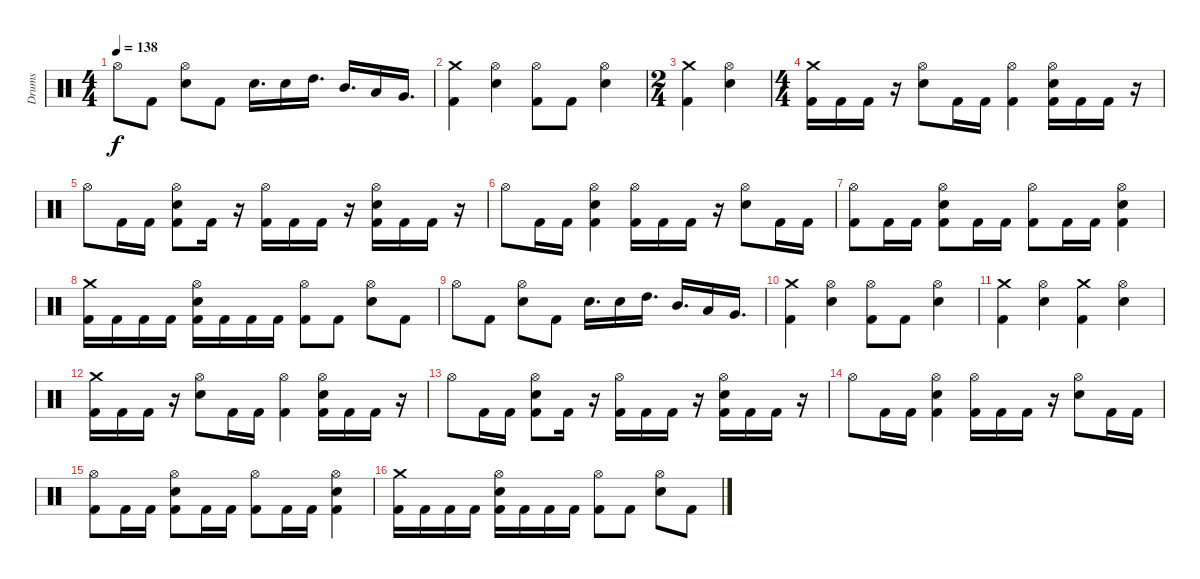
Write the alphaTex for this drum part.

\track ("Drums" "Drums") {instrument percussion}
\staff {score}
\articulation defaults
\ts (4 4)
\tempo 138
\clef neutral
\ks c "Hi-Hat (open)".8{dy f} "Kick (hit) 2".8
("Hi-Hat (open)" "Electric Snare (hit)").8 "Kick (hit) 2".8 "Electric Snare (hit)".16{d} "Electric Snare (hit)".16 "High Tom (hit)".16{d} "Mid Tom (hit)".16{d} "Low Tom (hit)".16 "Very Low Tom (hit)".16{d} |
("Crash medium (hit)" "Kick (hit) 2").4 ("Hi-Hat (open)" "Electric Snare (hit)").4 ("Hi-Hat (open)" "Kick (hit) 2").8 "Kick (hit) 2".8 ("Hi-Hat (open)" "Electric Snare (hit)").4 |
\ts (2 4)
("Crash medium (hit)" "Kick (hit) 2").4 ("Hi-Hat (open)" "Electric Snare (hit)").4 |
\ts (4 4)
("Crash medium (hit)" "Kick (hit) 2").16 "Kick (hit) 2".16 "Kick (hit) 2".16 r.16 ("Electric Snare (hit)" "Hi-Hat (open)").8 "Kick (hit) 2".16 "Kick (hit) 2".16 ("Hi-Hat (open)" "Kick (hit) 2").4 ("Electric Snare (hit)" "Hi-Hat (open)" "Kick (hit) 2").16 "Kick (hit) 2".16 "Kick (hit) 2".16 r.16 |
"Hi-Hat (open)".8 "Kick (hit) 2".16 "Kick (hit) 2".16 ("Electric Snare (hit)" "Hi-Hat (open)" "Kick (hit) 2").8 "Kick (hit) 2".16 r.16 ("Hi-Hat (open)" "Kick (hit) 2").16 "Kick (hit) 2".16 "Kick (hit) 2".16 r.16 ("Electric Snare (hit)" "Hi-Hat (open)" "Kick (hit) 2").16 "Kick (hit) 2".16 "Kick (hit) 2".16 r.16 |
"Hi-Hat (open)".8 "Kick (hit) 2".16 "Kick (hit) 2".16 ("Hi-Hat (open)" "Electric Snare (hit)" "Kick (hit) 2").4 ("Hi-Hat (open)" "Kick (hit) 2").16 "Kick (hit) 2".16 "Kick (hit) 2".16 r.16 ("Hi-Hat (open)" "Electric Snare (hit)").8 "Kick (hit) 2".16 "Kick (hit) 2".16 |
("Hi-Hat (open)" "Kick (hit) 2").8 "Kick (hit) 2".16 "Kick (hit) 2".16 ("Electric Snare (hit)" "Hi-Hat (open)" "Kick (hit) 2").8 "Kick (hit) 2".16 "Kick (hit) 2".16 ("Hi-Hat (open)" "Kick (hit) 2").8 "Kick (hit) 2".16 "Kick (hit) 2".16 ("Electric Snare (hit)" "Hi-Hat (open)" "Kick (hit) 2").4 |
("Crash medium (hit)" "Kick (hit) 2").16 "Kick (hit) 2".16 "Kick (hit) 2".16 "Kick (hit) 2".16 ("Hi-Hat (open)" "Electric Snare (hit)" "Kick (hit) 2").16 "Kick (hit) 2".16 "Kick (hit) 2".16 "Kick (hit) 2".16 ("Hi-Hat (open)" "Kick (hit) 2").8 "Kick (hit) 2".8 ("Hi-Hat (open)" "Electric Snare (hit)").8 "Kick (hit) 2".8 |
"Hi-Hat (open)".8 "Kick (hit) 2".8 ("Hi-Hat (open)" "Electric Snare (hit)").8 "Kick (hit) 2".8 "Electric Snare (hit)".16{d} "Electric Snare (hit)".16 "High Tom (hit)".16{d} "Mid Tom (hit)".16{d} "Low Tom (hit)".16 "Very Low Tom (hit)".16{d} |
("Crash medium (hit)" "Kick (hit) 2").4 ("Hi-Hat (open)" "Electric Snare (hit)").4 ("Hi-Hat (open)" "Kick (hit) 2").8 "Kick (hit) 2".8 ("Hi-Hat (open)" "Electric Snare (hit)").4 |
("Crash medium (hit)" "Kick (hit) 2").4 ("Hi-Hat (open)" "Electric Snare (hit)").4 ("Crash medium (hit)" "Kick (hit) 2").4 ("Hi-Hat (open)" "Electric Snare (hit)").4 |
("Crash medium (hit)" "Kick (hit) 2").16 "Kick (hit) 2".16 "Kick (hit) 2".16 r.16 ("Electric Snare (hit)" "Hi-Hat (open)").8 "Kick (hit) 2".16 "Kick (hit) 2".16 ("Hi-Hat (open)" "Kick (hit) 2").4 ("Electric Snare (hit)" "Hi-Hat (open)" "Kick (hit) 2").16 "Kick (hit) 2".16 "Kick (hit) 2".16 r.16 |
"Hi-Hat (open)".8 "Kick (hit) 2".16 "Kick (hit) 2".16 ("Electric Snare (hit)" "Hi-Hat (open)" "Kick (hit) 2").8 "Kick (hit) 2".16 r.16 ("Hi-Hat (open)" "Kick (hit) 2").16 "Kick (hit) 2".16 "Kick (hit) 2".16 r.16 ("Electric Snare (hit)" "Hi-Hat (open)" "Kick (hit) 2").16 "Kick (hit) 2".16 "Kick (hit) 2".16 r.16 |
"Hi-Hat (open)".8 "Kick (hit) 2".16 "Kick (hit) 2".16 ("Hi-Hat (open)" "Electric Snare (hit)" "Kick (hit) 2").4 ("Hi-Hat (open)" "Kick (hit) 2").16 "Kick (hit) 2".16 "Kick (hit) 2".16 r.16 ("Hi-Hat (open)" "Electric Snare (hit)").8 "Kick (hit) 2".16 "Kick (hit) 2".16 |
("Hi-Hat (open)" "Kick (hit) 2").8 "Kick (hit) 2".16 "Kick (hit) 2".16 ("Electric Snare (hit)" "Hi-Hat (open)" "Kick (hit) 2").8 "Kick (hit) 2".16 "Kick (hit) 2".16 ("Hi-Hat (open)" "Kick (hit) 2").8 "Kick (hit) 2".16 "Kick (hit) 2".16 ("Electric Snare (hit)" "Hi-Hat (open)" "Kick (hit) 2").4 |
("Crash medium (hit)" "Kick (hit) 2").16 "Kick (hit) 2".16 "Kick (hit) 2".16 "Kick (hit) 2".16 ("Hi-Hat (open)" "Electric Snare (hit)" "Kick (hit) 2").16 "Kick (hit) 2".16 "Kick (hit) 2".16 "Kick (hit) 2".16 ("Hi-Hat (open)" "Kick (hit) 2").8 "Kick (hit) 2".8 ("Hi-Hat (open)" "Electric Snare (hit)").8 "Kick (hit) 2".8
